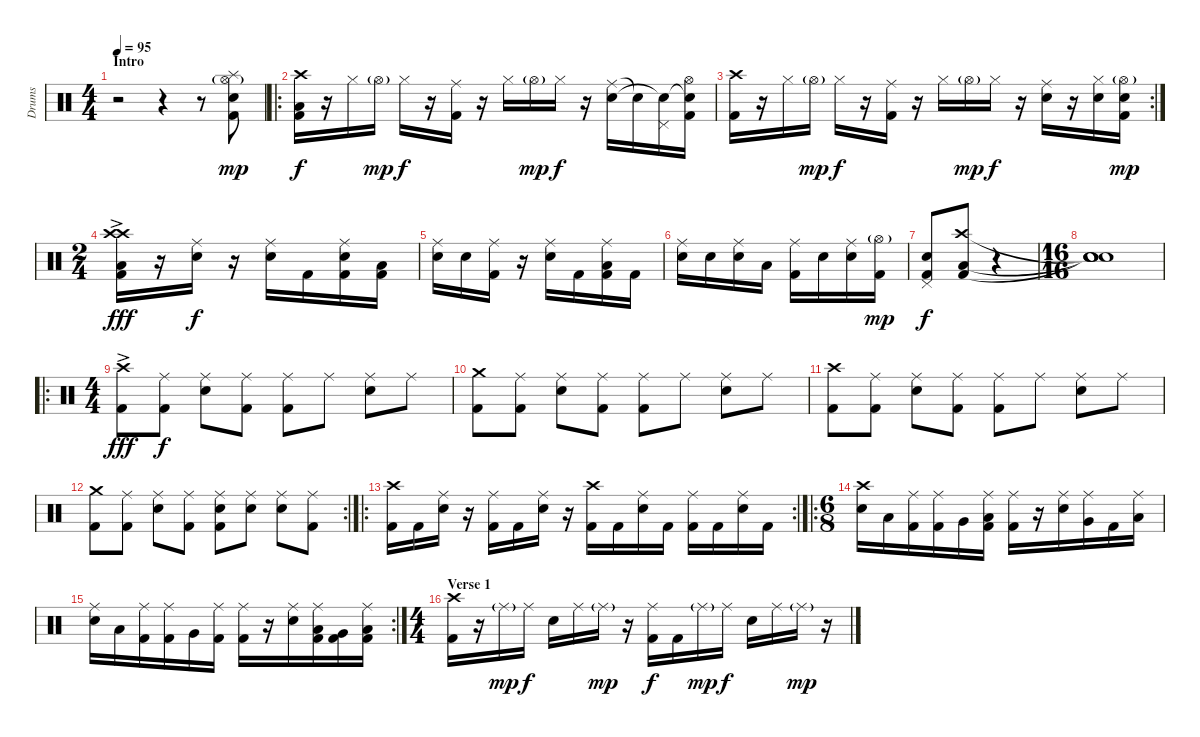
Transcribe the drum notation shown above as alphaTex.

\track ("Drums" "Drums") {instrument percussion}
\staff {score}
\articulation defaults
\ts (4 4)
\section ("" "Intro")
\tempo 95
\clef neutral
\ks c
r.2{dy mp} r.4 r.8 ("Splash (hit)" "Hi-Hat (open)"{g} "Electric Snare (hit)" "Kick (hit) 2").8 |
\ro
("Crash high (hit)" "Low Floor Tom (hit)" "Kick (hit) 2").16{dy f} r.16 "Hi-Hat (closed)".16 "Hi-Hat (open)"{g}.16{dy mp} "Hi-Hat (closed)".16{dy f} r.16 ("Ride (middle)" "Kick (hit) 2").16 r.16 "Hi-Hat (closed)".16 "Hi-Hat (open)"{g}.16{dy mp} "Hi-Hat (closed)".16{dy f} r.16 ("Ride (middle)" "Electric Snare (hit)"{tr (40 32)}).16 "Snare (hit)"{t}.16 ("Pedal Hi-Hat (hit)" "Snare (hit)"{t}).16 ("Hi-Hat (open)" "Snare (hit)"{t} "Kick (hit) 2").16 |
\rc 2
("Crash high (hit)" "Kick (hit) 2").16 r.16 "Hi-Hat (closed)".16 "Hi-Hat (open)"{g}.16{dy mp} "Hi-Hat (closed)".16{dy f} r.16 ("Ride (middle)" "Kick (hit) 2").16 r.16 "Hi-Hat (closed)".16 "Hi-Hat (open)"{g}.16{dy mp} "Hi-Hat (closed)".16{dy f} r.16 ("Ride (middle)" "Electric Snare (hit)").16 r.16 ("Hi-Hat (closed)" "Electric Snare (hit)").16 ("Hi-Hat (open)"{g} "Electric Snare (hit)" "Kick (hit) 2").16{dy mp} |
\ts (2 4)
("Crash high (hit)"{ac} "Crash high (hit)"{ac} "Low Floor Tom (hit)" "Kick (hit) 2").16{dy fff} r.16 ("Ride (middle)" "Electric Snare (hit)").16{dy f} r.16 ("Ride (middle)" "Electric Snare (hit)").16 "Kick (hit) 2".16 ("Ride (middle)" "Electric Snare (hit)" "Kick (hit) 2").16 ("Low Floor Tom (hit)" "Kick (hit) 2").16 |
("Ride (middle)" "Electric Snare (hit)").16 "Electric Snare (hit)".16 ("Ride (middle)" "Kick (hit) 2").16 r.16 ("Ride (middle)" "Electric Snare (hit)").16 "Kick (hit) 2".16 ("Ride (middle)" "Low Floor Tom (hit)" "Kick (hit) 2").16 "Kick (hit) 2".16 |
("Ride (middle)" "Electric Snare (hit)").16 "Electric Snare (hit)".16 ("Ride (middle)" "Electric Snare (hit)").16 "Low Floor Tom (hit)".16 ("Ride (middle)" "Kick (hit) 2").16 "Electric Snare (hit)".16 ("Ride (middle)" "Electric Snare (hit)").16 ("Hi-Hat (open)"{g} "Kick (hit) 2").16{dy mp} |
("Pedal Hi-Hat (hit)" "Electric Snare (hit)" "Kick (hit) 2").8{dy f} ("Crash high (hit)" "Low Floor Tom (hit)" "Kick (hit) 2").8 r.4 |
\ts (16 16)
("Snare (hit)"{t} "Snare (hit)"{t} "Snare (hit)"{t} "Snare (hit)").1 |
\ro
\ts (4 4)
("Crash high (hit)"{ac} "Kick (hit) 2").8{dy fff} ("Ride (middle)" "Kick (hit) 2").8{dy f} ("Ride (middle)" "Electric Snare (hit)").8 ("Ride (middle)" "Kick (hit) 2").8 ("Ride (middle)" "Kick (hit) 2").8 "Ride (middle)".8 ("Ride (middle)" "Electric Snare (hit)").8 "Ride (middle)".8 |
("Crash medium (hit)" "Kick (hit) 2").8 ("Ride (middle)" "Kick (hit) 2").8 ("Ride (middle)" "Electric Snare (hit)").8 ("Ride (middle)" "Kick (hit) 2").8 ("Ride (middle)" "Kick (hit) 2").8 "Ride (middle)".8 ("Ride (middle)" "Electric Snare (hit)").8 "Ride (middle)".8 |
("Crash high (hit)" "Kick (hit) 2").8 ("Ride (middle)" "Kick (hit) 2").8 ("Ride (middle)" "Electric Snare (hit)").8 ("Ride (middle)" "Kick (hit) 2").8 ("Ride (middle)" "Kick (hit) 2").8 "Ride (middle)".8 ("Ride (middle)" "Electric Snare (hit)").8 "Ride (middle)".8 |
\rc 2
("Crash medium (hit)" "Kick (hit) 2").8 ("Ride (middle)" "Kick (hit) 2").8 ("Ride (middle)" "Electric Snare (hit)").8 ("Ride (middle)" "Kick (hit) 2").8 ("Ride (middle)" "Electric Snare (hit)" "Kick (hit) 2").8 ("Ride (middle)" "Electric Snare (hit)").8 ("Ride (middle)" "Electric Snare (hit)").8 ("Ride (middle)" "Kick (hit) 2").8 |
\ro
\rc 2
("Crash high (hit)" "Kick (hit) 2").16 "Kick (hit) 2".16 ("Ride (middle)" "Electric Snare (hit)").16 r.16 ("Ride (middle)" "Kick (hit) 2").16 "Kick (hit) 2".16 ("Ride (middle)" "Electric Snare (hit)").16 r.16 ("Crash high (hit)" "Kick (hit) 2").16 "Kick (hit) 2".16 ("Ride (middle)" "Electric Snare (hit)").16 "Kick (hit) 2".16 ("Ride (middle)" "Kick (hit) 2").16 "Kick (hit) 2".16 ("Ride (middle)" "Electric Snare (hit)").16 "Kick (hit) 2".16 |
\ro
\ts (6 8)
("Crash high (hit)" "Electric Snare (hit)").16 "Low Floor Tom (hit)".16 ("Ride (middle)" "Kick (hit) 2").16 ("Ride (middle)" "Kick (hit) 2").16 "Very Low Tom (hit)".16 ("Ride (middle)" "Low Floor Tom (hit)" "Kick (hit) 2").16 ("Ride (middle)" "Kick (hit) 2").16 r.16 ("Ride (middle)" "Electric Snare (hit)").16 ("Ride (middle)" "Very Low Tom (hit)").16 "Kick (hit) 2".16 ("Ride (middle)" "Low Tom (hit)").16 |
\rc 2
("Ride (middle)" "Electric Snare (hit)").16 "Low Floor Tom (hit)".16 ("Ride (middle)" "Kick (hit) 2").16 ("Ride (middle)" "Kick (hit) 2").16 "Very Low Tom (hit)".16 ("Ride (middle)" "Kick (hit) 2").16 ("Ride (middle)" "Kick (hit) 2").16 r.16 ("Ride (middle)" "Electric Snare (hit)").16 ("Ride (middle)" "Low Floor Tom (hit)" "Kick (hit) 2").16 ("Very Low Tom (hit)" "Kick (hit) 2").16 ("Ride (middle)" "Low Floor Tom (hit)" "Kick (hit) 2").16 |
\ts (4 4)
\section ("" "Verse 1")
("Crash high (hit)" "Kick (hit) 2").16 r.16 "Ride (middle)"{g}.16{dy mp} "Ride (middle)".16{dy f} "Electric Snare (hit)".16 "Ride (middle)".16 "Ride (middle)"{g}.16{dy mp} r.16 ("Ride (middle)" "Kick (hit) 2").16{dy f} "Kick (hit) 2".16 "Ride (middle)"{g}.16{dy mp} "Ride (middle)".16{dy f} "Electric Snare (hit)".16 "Ride (middle)".16 "Ride (middle)"{g}.16{dy mp} r.16
